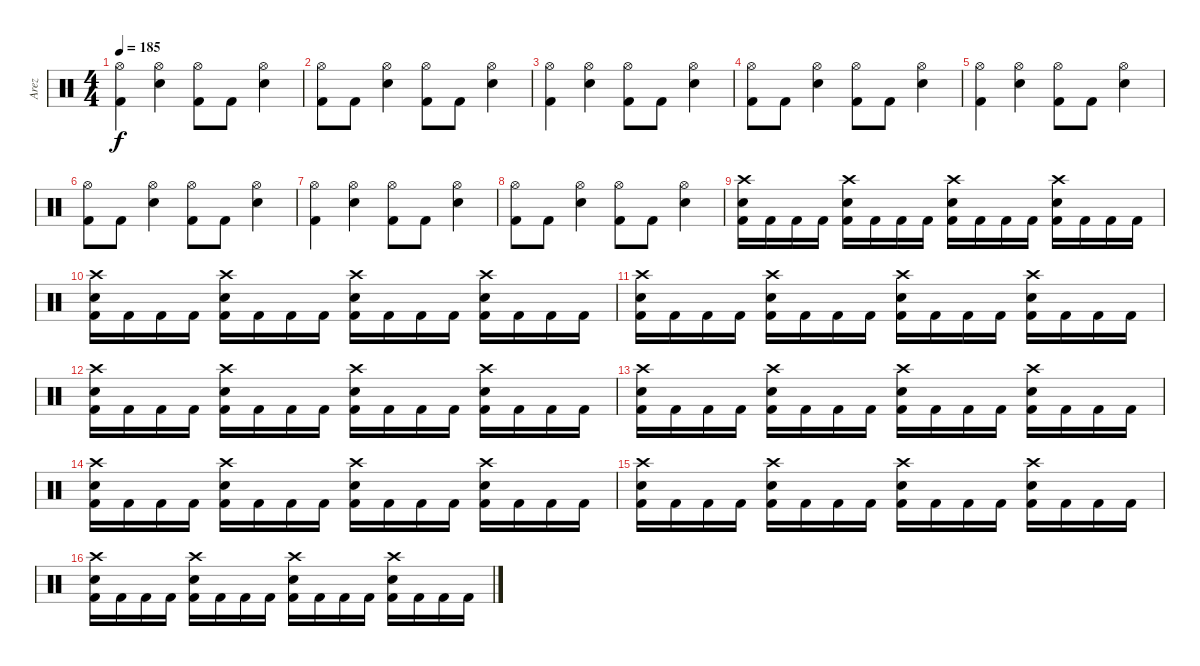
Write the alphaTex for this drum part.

\track ("Arez" "Arez") {instrument percussion}
\staff {score}
\articulation defaults
\ts (4 4)
\tempo 185
\clef neutral
\ks c
("Hi-Hat (open)" "Kick (hit) 2").4{dy f} ("Hi-Hat (open)" "Electric Snare (hit)").4 ("Hi-Hat (open)" "Kick (hit) 2").8 "Kick (hit) 2".8 ("Electric Snare (hit)" "Hi-Hat (open)").4 |
("Hi-Hat (open)" "Kick (hit) 2").8 "Kick (hit) 2".8 ("Hi-Hat (open)" "Electric Snare (hit)").4 ("Hi-Hat (open)" "Kick (hit) 2").8 "Kick (hit) 2".8 ("Hi-Hat (open)" "Electric Snare (hit)").4 |
("Hi-Hat (open)" "Kick (hit) 2").4 ("Hi-Hat (open)" "Electric Snare (hit)").4 ("Hi-Hat (open)" "Kick (hit) 2").8 "Kick (hit) 2".8 ("Electric Snare (hit)" "Hi-Hat (open)").4 |
("Hi-Hat (open)" "Kick (hit) 2").8 "Kick (hit) 2".8 ("Hi-Hat (open)" "Electric Snare (hit)").4 ("Hi-Hat (open)" "Kick (hit) 2").8 "Kick (hit) 2".8 ("Hi-Hat (open)" "Electric Snare (hit)").4 |
("Hi-Hat (open)" "Kick (hit) 2").4 ("Hi-Hat (open)" "Electric Snare (hit)").4 ("Hi-Hat (open)" "Kick (hit) 2").8 "Kick (hit) 2".8 ("Electric Snare (hit)" "Hi-Hat (open)").4 |
("Hi-Hat (open)" "Kick (hit) 2").8 "Kick (hit) 2".8 ("Hi-Hat (open)" "Electric Snare (hit)").4 ("Hi-Hat (open)" "Kick (hit) 2").8 "Kick (hit) 2".8 ("Hi-Hat (open)" "Electric Snare (hit)").4 |
("Hi-Hat (open)" "Kick (hit) 2").4 ("Hi-Hat (open)" "Electric Snare (hit)").4 ("Hi-Hat (open)" "Kick (hit) 2").8 "Kick (hit) 2".8 ("Electric Snare (hit)" "Hi-Hat (open)").4 |
("Hi-Hat (open)" "Kick (hit) 2").8 "Kick (hit) 2".8 ("Hi-Hat (open)" "Electric Snare (hit)").4 ("Hi-Hat (open)" "Kick (hit) 2").8 "Kick (hit) 2".8 ("Hi-Hat (open)" "Electric Snare (hit)").4 |
("Crash high (hit)" "Electric Snare (hit)" "Kick (hit) 2").16 "Kick (hit) 2".16 "Kick (hit) 2".16 "Kick (hit) 2".16 ("Crash high (hit)" "Electric Snare (hit)" "Kick (hit) 2").16 "Kick (hit) 2".16 "Kick (hit) 2".16 "Kick (hit) 2".16 ("Crash high (hit)" "Electric Snare (hit)" "Kick (hit) 2").16 "Kick (hit) 2".16 "Kick (hit) 2".16 "Kick (hit) 2".16 ("Crash high (hit)" "Electric Snare (hit)" "Kick (hit) 2").16 "Kick (hit) 2".16 "Kick (hit) 2".16 "Kick (hit) 2".16 |
("Crash high (hit)" "Electric Snare (hit)" "Kick (hit) 2").16 "Kick (hit) 2".16 "Kick (hit) 2".16 "Kick (hit) 2".16 ("Crash high (hit)" "Electric Snare (hit)" "Kick (hit) 2").16 "Kick (hit) 2".16 "Kick (hit) 2".16 "Kick (hit) 2".16 ("Crash high (hit)" "Electric Snare (hit)" "Kick (hit) 2").16 "Kick (hit) 2".16 "Kick (hit) 2".16 "Kick (hit) 2".16 ("Crash high (hit)" "Electric Snare (hit)" "Kick (hit) 2").16 "Kick (hit) 2".16 "Kick (hit) 2".16 "Kick (hit) 2".16 |
("Crash high (hit)" "Electric Snare (hit)" "Kick (hit) 2").16 "Kick (hit) 2".16 "Kick (hit) 2".16 "Kick (hit) 2".16 ("Crash high (hit)" "Electric Snare (hit)" "Kick (hit) 2").16 "Kick (hit) 2".16 "Kick (hit) 2".16 "Kick (hit) 2".16 ("Crash high (hit)" "Electric Snare (hit)" "Kick (hit) 2").16 "Kick (hit) 2".16 "Kick (hit) 2".16 "Kick (hit) 2".16 ("Crash high (hit)" "Electric Snare (hit)" "Kick (hit) 2").16 "Kick (hit) 2".16 "Kick (hit) 2".16 "Kick (hit) 2".16 |
("Crash high (hit)" "Electric Snare (hit)" "Kick (hit) 2").16 "Kick (hit) 2".16 "Kick (hit) 2".16 "Kick (hit) 2".16 ("Crash high (hit)" "Electric Snare (hit)" "Kick (hit) 2").16 "Kick (hit) 2".16 "Kick (hit) 2".16 "Kick (hit) 2".16 ("Crash high (hit)" "Electric Snare (hit)" "Kick (hit) 2").16 "Kick (hit) 2".16 "Kick (hit) 2".16 "Kick (hit) 2".16 ("Crash high (hit)" "Electric Snare (hit)" "Kick (hit) 2").16 "Kick (hit) 2".16 "Kick (hit) 2".16 "Kick (hit) 2".16 |
("Crash high (hit)" "Electric Snare (hit)" "Kick (hit) 2").16 "Kick (hit) 2".16 "Kick (hit) 2".16 "Kick (hit) 2".16 ("Crash high (hit)" "Electric Snare (hit)" "Kick (hit) 2").16 "Kick (hit) 2".16 "Kick (hit) 2".16 "Kick (hit) 2".16 ("Crash high (hit)" "Electric Snare (hit)" "Kick (hit) 2").16 "Kick (hit) 2".16 "Kick (hit) 2".16 "Kick (hit) 2".16 ("Crash high (hit)" "Electric Snare (hit)" "Kick (hit) 2").16 "Kick (hit) 2".16 "Kick (hit) 2".16 "Kick (hit) 2".16 |
("Crash high (hit)" "Electric Snare (hit)" "Kick (hit) 2").16 "Kick (hit) 2".16 "Kick (hit) 2".16 "Kick (hit) 2".16 ("Crash high (hit)" "Electric Snare (hit)" "Kick (hit) 2").16 "Kick (hit) 2".16 "Kick (hit) 2".16 "Kick (hit) 2".16 ("Crash high (hit)" "Electric Snare (hit)" "Kick (hit) 2").16 "Kick (hit) 2".16 "Kick (hit) 2".16 "Kick (hit) 2".16 ("Crash high (hit)" "Electric Snare (hit)" "Kick (hit) 2").16 "Kick (hit) 2".16 "Kick (hit) 2".16 "Kick (hit) 2".16 |
("Crash high (hit)" "Electric Snare (hit)" "Kick (hit) 2").16 "Kick (hit) 2".16 "Kick (hit) 2".16 "Kick (hit) 2".16 ("Crash high (hit)" "Electric Snare (hit)" "Kick (hit) 2").16 "Kick (hit) 2".16 "Kick (hit) 2".16 "Kick (hit) 2".16 ("Crash high (hit)" "Electric Snare (hit)" "Kick (hit) 2").16 "Kick (hit) 2".16 "Kick (hit) 2".16 "Kick (hit) 2".16 ("Crash high (hit)" "Electric Snare (hit)" "Kick (hit) 2").16 "Kick (hit) 2".16 "Kick (hit) 2".16 "Kick (hit) 2".16 |
("Crash high (hit)" "Electric Snare (hit)" "Kick (hit) 2").16 "Kick (hit) 2".16 "Kick (hit) 2".16 "Kick (hit) 2".16 ("Crash high (hit)" "Electric Snare (hit)" "Kick (hit) 2").16 "Kick (hit) 2".16 "Kick (hit) 2".16 "Kick (hit) 2".16 ("Crash high (hit)" "Electric Snare (hit)" "Kick (hit) 2").16 "Kick (hit) 2".16 "Kick (hit) 2".16 "Kick (hit) 2".16 ("Crash high (hit)" "Electric Snare (hit)" "Kick (hit) 2").16 "Kick (hit) 2".16 "Kick (hit) 2".16 "Kick (hit) 2".16
